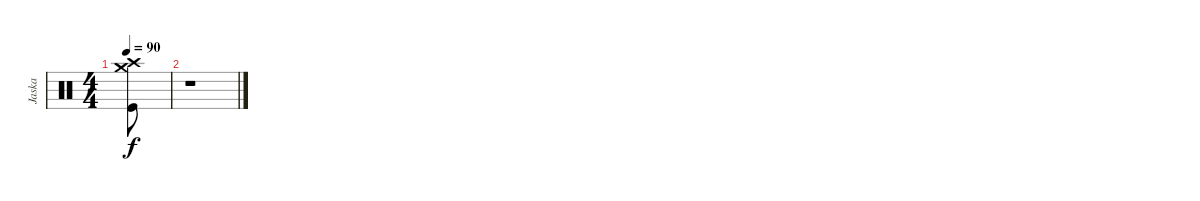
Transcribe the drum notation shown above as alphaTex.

\track ("Jaska" "Jaska") {instrument percussion}
\staff {score}
\articulation defaults
\ts (4 4)
\tempo 90
\clef neutral
\ks c
("Kick (hit)" "Crash high (hit)" "Crash medium (hit)").8{dy f} |
r.1
